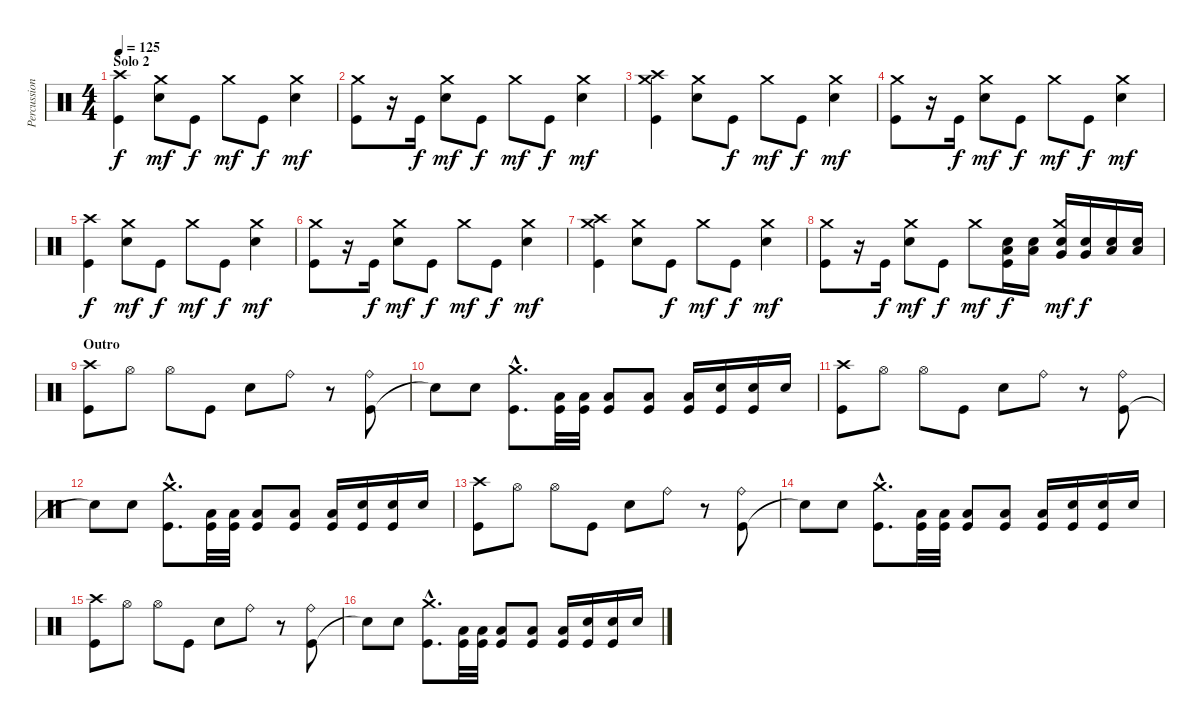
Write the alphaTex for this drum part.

\track ("Percussion" "Percussion") {instrument percussion}
\staff {score}
\articulation defaults
\ts (4 4)
\section ("" "Solo 2")
\tempo 125
\clef neutral
\ks c
("Kick (hit)" "Crash high (hit)").4{dy f} ("Electric Snare (hit)" "Crash medium (hit)").8{dy mf} "Kick (hit)".8{dy f} "Crash medium (hit)".8{dy mf} "Kick (hit)".8{dy f} ("Electric Snare (hit)" "Crash medium (hit)").4{dy mf} |
("Kick (hit)" "Crash medium (hit)").8 r.16 "Kick (hit)".16{dy f} ("Electric Snare (hit)" "Crash medium (hit)").8{dy mf} "Kick (hit)".8{dy f} "Crash medium (hit)".8{dy mf} "Kick (hit)".8{dy f} ("Electric Snare (hit)" "Crash medium (hit)").4{dy mf} |
("Kick (hit)" "Crash medium (hit)" "Crash high (hit)").4 ("Electric Snare (hit)" "Crash medium (hit)").8 "Kick (hit)".8{dy f} "Crash medium (hit)".8{dy mf} "Kick (hit)".8{dy f} ("Electric Snare (hit)" "Crash medium (hit)").4{dy mf} |
("Kick (hit)" "Crash medium (hit)").8 r.16 "Kick (hit)".16{dy f} ("Electric Snare (hit)" "Crash medium (hit)").8{dy mf} "Kick (hit)".8{dy f} "Crash medium (hit)".8{dy mf} "Kick (hit)".8{dy f} ("Electric Snare (hit)" "Crash medium (hit)").4{dy mf} |
("Kick (hit)" "Crash high (hit)").4{dy f} ("Electric Snare (hit)" "Crash medium (hit)").8{dy mf} "Kick (hit)".8{dy f} "Crash medium (hit)".8{dy mf} "Kick (hit)".8{dy f} ("Electric Snare (hit)" "Crash medium (hit)").4{dy mf} |
("Kick (hit)" "Crash medium (hit)").8 r.16 "Kick (hit)".16{dy f} ("Electric Snare (hit)" "Crash medium (hit)").8{dy mf} "Kick (hit)".8{dy f} "Crash medium (hit)".8{dy mf} "Kick (hit)".8{dy f} ("Electric Snare (hit)" "Crash medium (hit)").4{dy mf} |
("Kick (hit)" "Crash medium (hit)" "Crash high (hit)").4 ("Electric Snare (hit)" "Crash medium (hit)").8 "Kick (hit)".8{dy f} "Crash medium (hit)".8{dy mf} "Kick (hit)".8{dy f} ("Electric Snare (hit)" "Crash medium (hit)").4{dy mf} |
("Kick (hit)" "Crash medium (hit)").8 r.16 "Kick (hit)".16{dy f} ("Electric Snare (hit)" "Crash medium (hit)").8{dy mf} "Kick (hit)".8{dy f} "Crash medium (hit)".8{dy mf} ("Kick (hit)" "Electric Snare (hit)" "Low Tom (hit)").16{dy f} ("Electric Snare (hit)" "Low Tom (hit)").16 ("Electric Snare (hit)" "Very Low Tom (hit)" "Crash medium (hit)").16{dy mf} ("Electric Snare (hit)" "Very Low Tom (hit)").16{dy f} ("Electric Snare (hit)" "Low Floor Tom (hit)").16 ("Electric Snare (hit)" "Low Floor Tom (hit)").16 |
\section ("" "Outro")
("Kick (hit)" "Crash high (hit)").8 "Hi-Hat (open)".8 "Hi-Hat (open)".8 "Kick (hit)".8 "Electric Snare (hit)".8 "Ride (bell)".8 r.8 ("Kick (hit)" "Ride (bell)").8 |
"Snare (hit)"{t}.8 "Electric Snare (hit)".8 ("Kick (hit)"{hac} "Crash medium (hit)"{hac}).8{d} ("Kick (hit)" "Low Floor Tom (hit)").32 ("Kick (hit)" "Low Floor Tom (hit)").32 ("Kick (hit)" "Low Floor Tom (hit)").8 ("Kick (hit)" "Low Floor Tom (hit)").8 ("Kick (hit)" "Low Floor Tom (hit)").16 ("Kick (hit)" "Electric Snare (hit)").16 ("Kick (hit)" "Electric Snare (hit)").16 "Electric Snare (hit)".16 |
("Kick (hit)" "Crash high (hit)").8 "Hi-Hat (open)".8 "Hi-Hat (open)".8 "Kick (hit)".8 "Electric Snare (hit)".8 "Ride (bell)".8 r.8 ("Kick (hit)" "Ride (bell)").8 |
"Snare (hit)"{t}.8 "Electric Snare (hit)".8 ("Kick (hit)"{hac} "Crash medium (hit)"{hac}).8{d} ("Kick (hit)" "Low Floor Tom (hit)").32 ("Kick (hit)" "Low Floor Tom (hit)").32 ("Kick (hit)" "Low Floor Tom (hit)").8 ("Kick (hit)" "Low Floor Tom (hit)").8 ("Kick (hit)" "Low Floor Tom (hit)").16 ("Kick (hit)" "Electric Snare (hit)").16 ("Kick (hit)" "Electric Snare (hit)").16 "Electric Snare (hit)".16 |
("Kick (hit)" "Crash high (hit)").8 "Hi-Hat (open)".8 "Hi-Hat (open)".8 "Kick (hit)".8 "Electric Snare (hit)".8 "Ride (bell)".8 r.8 ("Kick (hit)" "Ride (bell)").8 |
"Snare (hit)"{t}.8 "Electric Snare (hit)".8 ("Kick (hit)"{hac} "Crash medium (hit)"{hac}).8{d} ("Kick (hit)" "Low Floor Tom (hit)").32 ("Kick (hit)" "Low Floor Tom (hit)").32 ("Kick (hit)" "Low Floor Tom (hit)").8 ("Kick (hit)" "Low Floor Tom (hit)").8 ("Kick (hit)" "Low Floor Tom (hit)").16 ("Kick (hit)" "Electric Snare (hit)").16 ("Kick (hit)" "Electric Snare (hit)").16 "Electric Snare (hit)".16 |
("Kick (hit)" "Crash high (hit)").8 "Hi-Hat (open)".8 "Hi-Hat (open)".8 "Kick (hit)".8 "Electric Snare (hit)".8 "Ride (bell)".8 r.8 ("Kick (hit)" "Ride (bell)").8 |
"Snare (hit)"{t}.8 "Electric Snare (hit)".8 ("Kick (hit)"{hac} "Crash medium (hit)"{hac}).8{d} ("Kick (hit)" "Low Floor Tom (hit)").32 ("Kick (hit)" "Low Floor Tom (hit)").32 ("Kick (hit)" "Low Floor Tom (hit)").8 ("Kick (hit)" "Low Floor Tom (hit)").8 ("Kick (hit)" "Low Floor Tom (hit)").16 ("Kick (hit)" "Electric Snare (hit)").16 ("Kick (hit)" "Electric Snare (hit)").16 "Electric Snare (hit)".16
